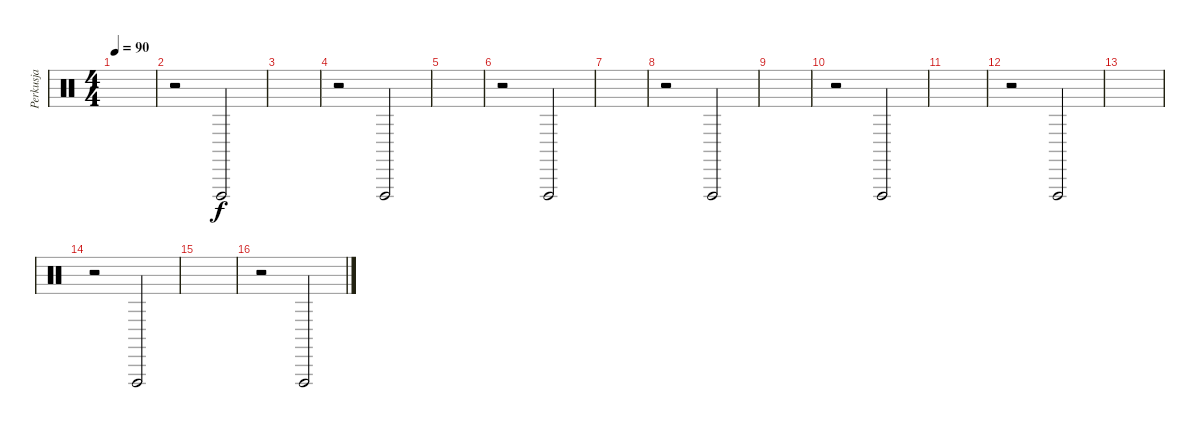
\track ("Perkusja" "Perkusja") {instrument percussion}
\staff {score}
\articulation defaults
\ts (4 4)
\tempo 90
\clef neutral
\ks c
|
r.2 "Vibraslap (hit)".2 |
|
r.2 "Vibraslap (hit)".2 |
|
r.2 "Vibraslap (hit)".2 |
|
r.2 "Vibraslap (hit)".2 |
|
r.2 "Vibraslap (hit)".2 |
|
r.2 "Vibraslap (hit)".2 |
|
r.2 "Vibraslap (hit)".2 |
|
r.2 "Vibraslap (hit)".2
